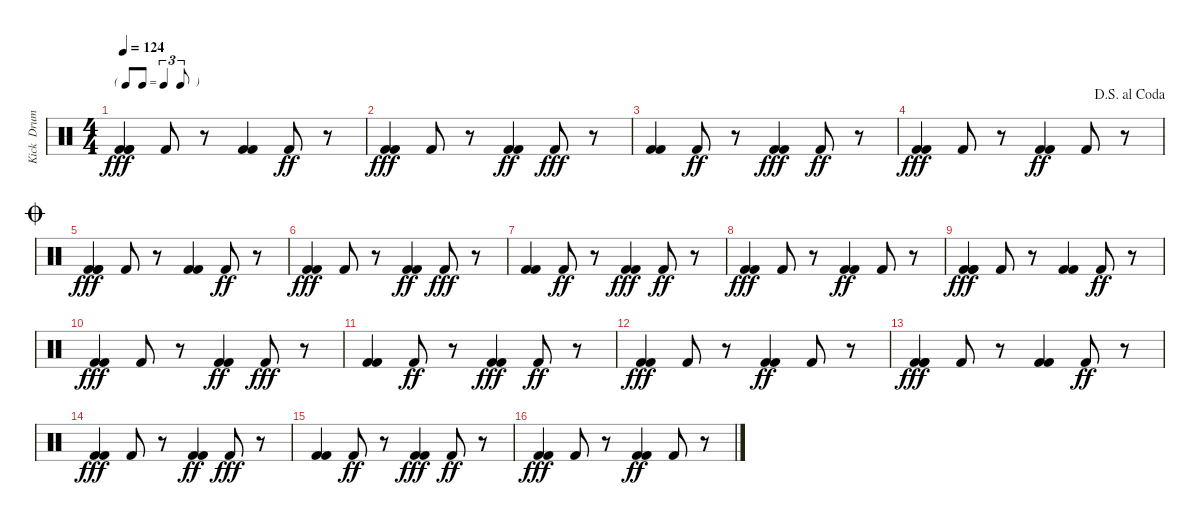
\track ("Kick  Drum" "Kick  Drum") {instrument percussion}
\staff {score}
\articulation defaults
\ts (4 4)
\tf triplet8th
\tempo 124
\clef neutral
\ks c
("Kick (hit) 2" "Kick (hit) 2" "Kick (hit) 2").4{dy fff} "Kick (hit) 2".8 r.8 ("Kick (hit) 2" "Kick (hit) 2").4 "Kick (hit) 2".8{dy ff} r.8 |
("Kick (hit) 2" "Kick (hit) 2").4{dy fff} "Kick (hit) 2".8 r.8 ("Kick (hit) 2" "Kick (hit) 2").4{dy ff} "Kick (hit) 2".8{dy fff} r.8 |
("Kick (hit) 2" "Kick (hit) 2").4 "Kick (hit) 2".8{dy ff} r.8 ("Kick (hit) 2" "Kick (hit) 2").4{dy fff} "Kick (hit) 2".8{dy ff} r.8 |
\jump dalsegnoalcoda
("Kick (hit) 2" "Kick (hit) 2").4{dy fff} "Kick (hit) 2".8 r.8 ("Kick (hit) 2" "Kick (hit) 2").4{dy ff} "Kick (hit) 2".8 r.8 |
\jump coda
("Kick (hit) 2" "Kick (hit) 2" "Kick (hit) 2").4{dy fff} "Kick (hit) 2".8 r.8 ("Kick (hit) 2" "Kick (hit) 2").4 "Kick (hit) 2".8{dy ff} r.8 |
("Kick (hit) 2" "Kick (hit) 2").4{dy fff} "Kick (hit) 2".8 r.8 ("Kick (hit) 2" "Kick (hit) 2").4{dy ff} "Kick (hit) 2".8{dy fff} r.8 |
("Kick (hit) 2" "Kick (hit) 2").4 "Kick (hit) 2".8{dy ff} r.8 ("Kick (hit) 2" "Kick (hit) 2").4{dy fff} "Kick (hit) 2".8{dy ff} r.8 |
("Kick (hit) 2" "Kick (hit) 2").4{dy fff} "Kick (hit) 2".8 r.8 ("Kick (hit) 2" "Kick (hit) 2").4{dy ff} "Kick (hit) 2".8 r.8 |
("Kick (hit) 2" "Kick (hit) 2" "Kick (hit) 2").4{dy fff} "Kick (hit) 2".8 r.8 ("Kick (hit) 2" "Kick (hit) 2").4 "Kick (hit) 2".8{dy ff} r.8 |
("Kick (hit) 2" "Kick (hit) 2").4{dy fff} "Kick (hit) 2".8 r.8 ("Kick (hit) 2" "Kick (hit) 2").4{dy ff} "Kick (hit) 2".8{dy fff} r.8 |
("Kick (hit) 2" "Kick (hit) 2").4 "Kick (hit) 2".8{dy ff} r.8 ("Kick (hit) 2" "Kick (hit) 2").4{dy fff} "Kick (hit) 2".8{dy ff} r.8 |
("Kick (hit) 2" "Kick (hit) 2").4{dy fff} "Kick (hit) 2".8 r.8 ("Kick (hit) 2" "Kick (hit) 2").4{dy ff} "Kick (hit) 2".8 r.8 |
("Kick (hit) 2" "Kick (hit) 2" "Kick (hit) 2").4{dy fff} "Kick (hit) 2".8 r.8 ("Kick (hit) 2" "Kick (hit) 2").4 "Kick (hit) 2".8{dy ff} r.8 |
("Kick (hit) 2" "Kick (hit) 2").4{dy fff} "Kick (hit) 2".8 r.8 ("Kick (hit) 2" "Kick (hit) 2").4{dy ff} "Kick (hit) 2".8{dy fff} r.8 |
("Kick (hit) 2" "Kick (hit) 2").4 "Kick (hit) 2".8{dy ff} r.8 ("Kick (hit) 2" "Kick (hit) 2").4{dy fff} "Kick (hit) 2".8{dy ff} r.8 |
("Kick (hit) 2" "Kick (hit) 2").4{dy fff} "Kick (hit) 2".8 r.8 ("Kick (hit) 2" "Kick (hit) 2").4{dy ff} "Kick (hit) 2".8 r.8
